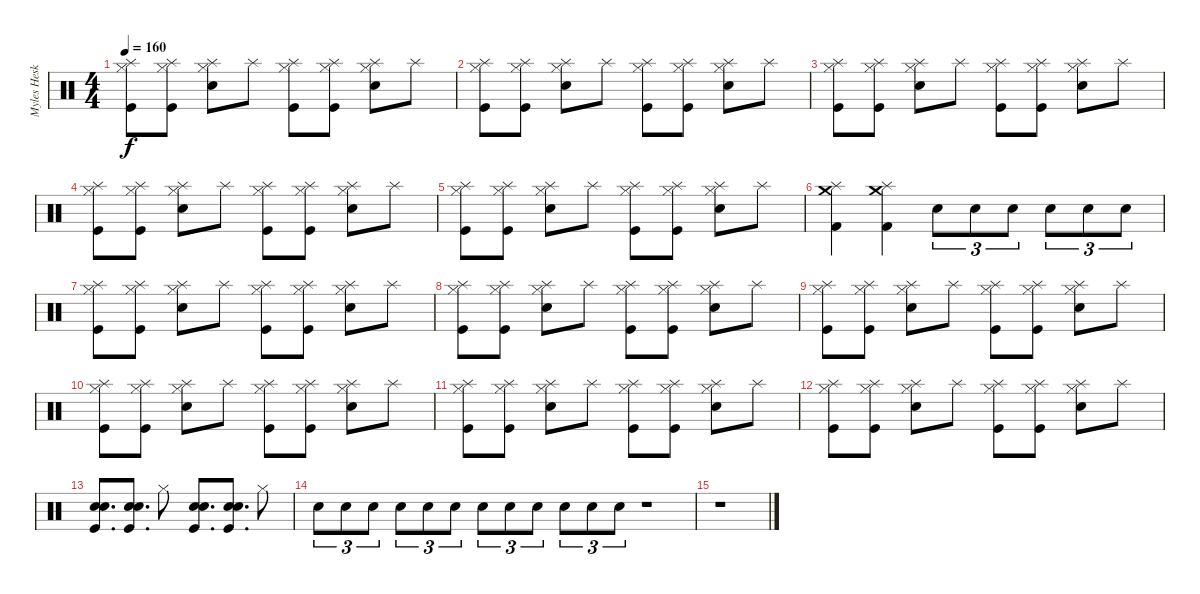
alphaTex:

\track ("Myles Heskett" "Myles Hesk") {instrument percussion}
\staff {score}
\articulation defaults
\ts (4 4)
\tempo 160
\clef neutral
\ks c
("Splash (hit)" "Hi-Hat (closed)" "Kick (hit)").8{dy f} ("Splash (hit)" "Hi-Hat (closed)" "Kick (hit)").8 ("Splash (hit)" "Hi-Hat (closed)" "Electric Snare (hit)").8 "Splash (hit)".8 ("Splash (hit)" "Hi-Hat (closed)" "Kick (hit)").8 ("Splash (hit)" "Hi-Hat (closed)" "Kick (hit)").8 ("Splash (hit)" "Hi-Hat (closed)" "Electric Snare (hit)").8 "Splash (hit)".8 |
("Splash (hit)" "Hi-Hat (closed)" "Kick (hit)").8 ("Splash (hit)" "Hi-Hat (closed)" "Kick (hit)").8 ("Splash (hit)" "Hi-Hat (closed)" "Electric Snare (hit)").8 "Splash (hit)".8 ("Splash (hit)" "Hi-Hat (closed)" "Kick (hit)").8 ("Splash (hit)" "Hi-Hat (closed)" "Kick (hit)").8 ("Splash (hit)" "Hi-Hat (closed)" "Electric Snare (hit)").8 "Splash (hit)".8 |
("Splash (hit)" "Hi-Hat (closed)" "Kick (hit)").8 ("Splash (hit)" "Hi-Hat (closed)" "Kick (hit)").8 ("Splash (hit)" "Hi-Hat (closed)" "Electric Snare (hit)").8 "Splash (hit)".8 ("Splash (hit)" "Hi-Hat (closed)" "Kick (hit)").8 ("Splash (hit)" "Hi-Hat (closed)" "Kick (hit)").8 ("Splash (hit)" "Hi-Hat (closed)" "Electric Snare (hit)").8 "Splash (hit)".8 |
("Splash (hit)" "Hi-Hat (closed)" "Kick (hit)").8 ("Splash (hit)" "Hi-Hat (closed)" "Kick (hit)").8 ("Splash (hit)" "Hi-Hat (closed)" "Electric Snare (hit)").8 "Splash (hit)".8 ("Splash (hit)" "Hi-Hat (closed)" "Kick (hit)").8 ("Splash (hit)" "Hi-Hat (closed)" "Kick (hit)").8 ("Splash (hit)" "Hi-Hat (closed)" "Electric Snare (hit)").8 "Splash (hit)".8 |
("Splash (hit)" "Hi-Hat (closed)" "Kick (hit)").8 ("Splash (hit)" "Hi-Hat (closed)" "Kick (hit)").8 ("Splash (hit)" "Hi-Hat (closed)" "Electric Snare (hit)").8 "Splash (hit)".8 ("Splash (hit)" "Hi-Hat (closed)" "Kick (hit)").8 ("Splash (hit)" "Hi-Hat (closed)" "Kick (hit)").8 ("Splash (hit)" "Hi-Hat (closed)" "Electric Snare (hit)").8 "Splash (hit)".8 |
("Kick (hit) 2" "Crash medium (hit)" "Splash (hit)").4 ("Kick (hit) 2" "Crash medium (hit)" "Splash (hit)").4 "Snare (hit) 2".8{tu (3 2)} "Snare (hit) 2".8{tu (3 2)} "Snare (hit) 2".8{tu (3 2)} "Electric Snare (hit)".8{tu (3 2)} "Electric Snare (hit)".8{tu (3 2)} "Electric Snare (hit)".8{tu (3 2)} |
("Splash (hit)" "Hi-Hat (closed)" "Kick (hit)").8 ("Splash (hit)" "Hi-Hat (closed)" "Kick (hit)").8 ("Splash (hit)" "Hi-Hat (closed)" "Electric Snare (hit)").8 "Splash (hit)".8 ("Splash (hit)" "Hi-Hat (closed)" "Kick (hit)").8 ("Splash (hit)" "Hi-Hat (closed)" "Kick (hit)").8 ("Splash (hit)" "Hi-Hat (closed)" "Electric Snare (hit)").8 "Splash (hit)".8 |
("Splash (hit)" "Hi-Hat (closed)" "Kick (hit)").8 ("Splash (hit)" "Hi-Hat (closed)" "Kick (hit)").8 ("Splash (hit)" "Hi-Hat (closed)" "Electric Snare (hit)").8 "Splash (hit)".8 ("Splash (hit)" "Hi-Hat (closed)" "Kick (hit)").8 ("Splash (hit)" "Hi-Hat (closed)" "Kick (hit)").8 ("Splash (hit)" "Hi-Hat (closed)" "Electric Snare (hit)").8 "Splash (hit)".8 |
("Splash (hit)" "Hi-Hat (closed)" "Kick (hit)").8 ("Splash (hit)" "Hi-Hat (closed)" "Kick (hit)").8 ("Splash (hit)" "Hi-Hat (closed)" "Electric Snare (hit)").8 "Splash (hit)".8 ("Splash (hit)" "Hi-Hat (closed)" "Kick (hit)").8 ("Splash (hit)" "Hi-Hat (closed)" "Kick (hit)").8 ("Splash (hit)" "Hi-Hat (closed)" "Electric Snare (hit)").8 "Splash (hit)".8 |
("Splash (hit)" "Hi-Hat (closed)" "Kick (hit)").8 ("Splash (hit)" "Hi-Hat (closed)" "Kick (hit)").8 ("Splash (hit)" "Hi-Hat (closed)" "Electric Snare (hit)").8 "Splash (hit)".8 ("Splash (hit)" "Hi-Hat (closed)" "Kick (hit)").8 ("Splash (hit)" "Hi-Hat (closed)" "Kick (hit)").8 ("Splash (hit)" "Hi-Hat (closed)" "Electric Snare (hit)").8 "Splash (hit)".8 |
("Splash (hit)" "Hi-Hat (closed)" "Kick (hit)").8 ("Splash (hit)" "Hi-Hat (closed)" "Kick (hit)").8 ("Splash (hit)" "Hi-Hat (closed)" "Electric Snare (hit)").8 "Splash (hit)".8 ("Splash (hit)" "Hi-Hat (closed)" "Kick (hit)").8 ("Splash (hit)" "Hi-Hat (closed)" "Kick (hit)").8 ("Splash (hit)" "Hi-Hat (closed)" "Electric Snare (hit)").8 "Splash (hit)".8 |
("Splash (hit)" "Hi-Hat (closed)" "Kick (hit)").8 ("Splash (hit)" "Hi-Hat (closed)" "Kick (hit)").8 ("Splash (hit)" "Hi-Hat (closed)" "Electric Snare (hit)").8 "Splash (hit)".8 ("Splash (hit)" "Hi-Hat (closed)" "Kick (hit)").8 ("Splash (hit)" "Hi-Hat (closed)" "Kick (hit)").8 ("Splash (hit)" "Hi-Hat (closed)" "Electric Snare (hit)").8 "Splash (hit)".8 |
("Electric Snare (hit)" "Snare (hit) 2" "Kick (hit)").8{d} ("Electric Snare (hit)" "Snare (hit) 2" "Kick (hit)").8{d} "Hi-Hat (closed)".8 ("Electric Snare (hit)" "Snare (hit) 2" "Kick (hit)").8{d} ("Electric Snare (hit)" "Snare (hit) 2" "Kick (hit)").8{d} "Hi-Hat (closed)".8 |
"Snare (hit) 2".8{tu (3 2)} "Snare (hit) 2".8{tu (3 2)} "Snare (hit) 2".8{tu (3 2)} "Electric Snare (hit)".8{tu (3 2)} "Electric Snare (hit)".8{tu (3 2)} "Electric Snare (hit)".8{tu (3 2)} "Snare (hit) 2".8{tu (3 2)} "Snare (hit) 2".8{tu (3 2)} "Snare (hit) 2".8{tu (3 2)} "Electric Snare (hit)".8{tu (3 2)} "Electric Snare (hit)".8{tu (3 2)} "Electric Snare (hit)".8{tu (3 2)} r.1 |
r.1
